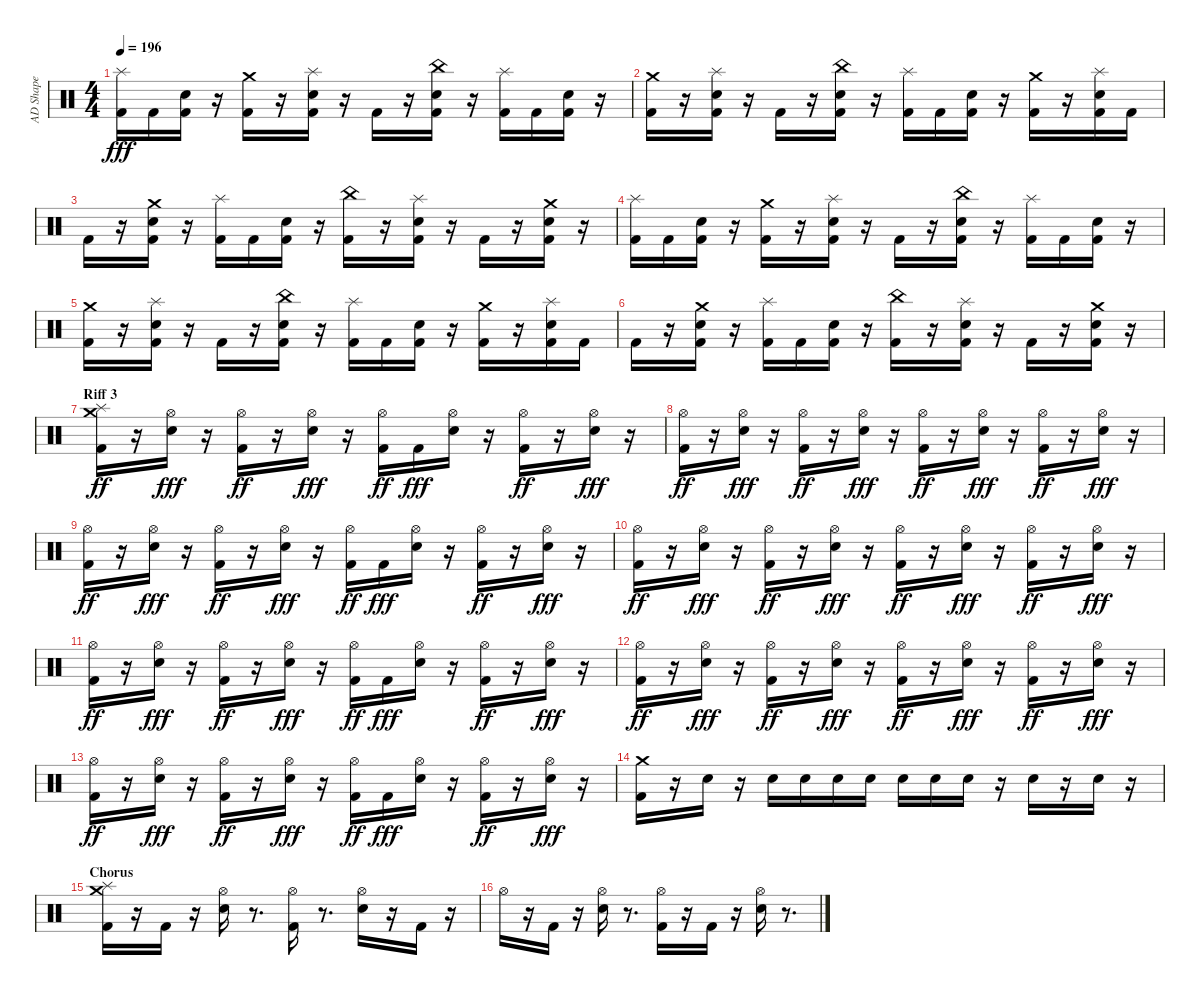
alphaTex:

\track ("AD Shape" "AD Shape") {instrument percussion}
\staff {score}
\articulation defaults
\ts (4 4)
\tempo 196
\clef neutral
\ks c
("Kick (hit) 2" "Splash (hit)").16{dy fff} "Kick (hit) 2".16 ("Kick (hit) 2" "Snare (hit) 2").16 r.16 ("Kick (hit) 2" "Crash medium (hit)").16 r.16 ("Kick (hit) 2" "Snare (hit) 2" "Splash (hit)").16 r.16 "Kick (hit) 2".16 r.16 ("Kick (hit) 2" "Snare (hit) 2" "China (hit)").16 r.16 ("Kick (hit) 2" "Splash (hit)").16 "Kick (hit) 2".16 ("Kick (hit) 2" "Snare (hit) 2").16 r.16 |
("Kick (hit) 2" "Crash medium (hit)").16 r.16 ("Kick (hit) 2" "Snare (hit) 2" "Splash (hit)").16 r.16 "Kick (hit) 2".16 r.16 ("Kick (hit) 2" "Snare (hit) 2" "China (hit)").16 r.16 ("Kick (hit) 2" "Splash (hit)").16 "Kick (hit) 2".16 ("Kick (hit) 2" "Snare (hit) 2").16 r.16 ("Kick (hit) 2" "Crash medium (hit)").16 r.16 ("Kick (hit) 2" "Snare (hit) 2" "Splash (hit)").16 "Kick (hit) 2".16 |
"Kick (hit) 2".16 r.16 ("Kick (hit) 2" "Snare (hit) 2" "Crash medium (hit)").16 r.16 ("Kick (hit) 2" "Splash (hit)").16 "Kick (hit) 2".16 ("Kick (hit) 2" "Snare (hit) 2").16 r.16 ("Kick (hit) 2" "China (hit)").16 r.16 ("Kick (hit) 2" "Snare (hit) 2" "Splash (hit)").16 r.16 "Kick (hit) 2".16 r.16 ("Kick (hit) 2" "Snare (hit) 2" "Crash medium (hit)").16 r.16 |
("Kick (hit) 2" "Splash (hit)").16 "Kick (hit) 2".16 ("Kick (hit) 2" "Snare (hit) 2").16 r.16 ("Kick (hit) 2" "Crash medium (hit)").16 r.16 ("Kick (hit) 2" "Snare (hit) 2" "Splash (hit)").16 r.16 "Kick (hit) 2".16 r.16 ("Kick (hit) 2" "Snare (hit) 2" "China (hit)").16 r.16 ("Kick (hit) 2" "Splash (hit)").16 "Kick (hit) 2".16 ("Kick (hit) 2" "Snare (hit) 2").16 r.16 |
("Kick (hit) 2" "Crash medium (hit)").16 r.16 ("Kick (hit) 2" "Snare (hit) 2" "Splash (hit)").16 r.16 "Kick (hit) 2".16 r.16 ("Kick (hit) 2" "Snare (hit) 2" "China (hit)").16 r.16 ("Kick (hit) 2" "Splash (hit)").16 "Kick (hit) 2".16 ("Kick (hit) 2" "Snare (hit) 2").16 r.16 ("Kick (hit) 2" "Crash medium (hit)").16 r.16 ("Kick (hit) 2" "Snare (hit) 2" "Splash (hit)").16 "Kick (hit) 2".16 |
"Kick (hit) 2".16 r.16 ("Kick (hit) 2" "Snare (hit) 2" "Crash medium (hit)").16 r.16 ("Kick (hit) 2" "Splash (hit)").16 "Kick (hit) 2".16 ("Kick (hit) 2" "Snare (hit) 2").16 r.16 ("Kick (hit) 2" "China (hit)").16 r.16 ("Kick (hit) 2" "Snare (hit) 2" "Splash (hit)").16 r.16 "Kick (hit) 2".16 r.16 ("Kick (hit) 2" "Snare (hit) 2" "Crash medium (hit)").16 r.16 |
\section ("" "Riff 3")
("Kick (hit) 2" "Splash (hit)" "Crash medium (hit)").16{dy ff} r.16 ("Snare (hit) 2" "Hi-Hat (open)").16{dy fff} r.16 ("Kick (hit) 2" "Hi-Hat (open)").16{dy ff} r.16 ("Snare (hit) 2" "Hi-Hat (open)").16{dy fff} r.16 ("Kick (hit) 2" "Hi-Hat (open)").16{dy ff} "Kick (hit) 2".16{dy fff} ("Snare (hit) 2" "Hi-Hat (open)").16 r.16 ("Kick (hit) 2" "Hi-Hat (open)").16{dy ff} r.16 ("Snare (hit) 2" "Hi-Hat (open)").16{dy fff} r.16 |
("Kick (hit) 2" "Hi-Hat (open)").16{dy ff} r.16 ("Snare (hit) 2" "Hi-Hat (open)").16{dy fff} r.16 ("Kick (hit) 2" "Hi-Hat (open)").16{dy ff} r.16 ("Snare (hit) 2" "Hi-Hat (open)").16{dy fff} r.16 ("Kick (hit) 2" "Hi-Hat (open)").16{dy ff} r.16 ("Snare (hit) 2" "Hi-Hat (open)").16{dy fff} r.16 ("Kick (hit) 2" "Hi-Hat (open)").16{dy ff} r.16 ("Snare (hit) 2" "Hi-Hat (open)").16{dy fff} r.16 |
("Kick (hit) 2" "Hi-Hat (open)").16{dy ff} r.16 ("Snare (hit) 2" "Hi-Hat (open)").16{dy fff} r.16 ("Kick (hit) 2" "Hi-Hat (open)").16{dy ff} r.16 ("Snare (hit) 2" "Hi-Hat (open)").16{dy fff} r.16 ("Kick (hit) 2" "Hi-Hat (open)").16{dy ff} "Kick (hit) 2".16{dy fff} ("Snare (hit) 2" "Hi-Hat (open)").16 r.16 ("Kick (hit) 2" "Hi-Hat (open)").16{dy ff} r.16 ("Snare (hit) 2" "Hi-Hat (open)").16{dy fff} r.16 |
("Kick (hit) 2" "Hi-Hat (open)").16{dy ff} r.16 ("Snare (hit) 2" "Hi-Hat (open)").16{dy fff} r.16 ("Kick (hit) 2" "Hi-Hat (open)").16{dy ff} r.16 ("Snare (hit) 2" "Hi-Hat (open)").16{dy fff} r.16 ("Kick (hit) 2" "Hi-Hat (open)").16{dy ff} r.16 ("Snare (hit) 2" "Hi-Hat (open)").16{dy fff} r.16 ("Kick (hit) 2" "Hi-Hat (open)").16{dy ff} r.16 ("Snare (hit) 2" "Hi-Hat (open)").16{dy fff} r.16 |
("Kick (hit) 2" "Hi-Hat (open)").16{dy ff} r.16 ("Snare (hit) 2" "Hi-Hat (open)").16{dy fff} r.16 ("Kick (hit) 2" "Hi-Hat (open)").16{dy ff} r.16 ("Snare (hit) 2" "Hi-Hat (open)").16{dy fff} r.16 ("Kick (hit) 2" "Hi-Hat (open)").16{dy ff} "Kick (hit) 2".16{dy fff} ("Snare (hit) 2" "Hi-Hat (open)").16 r.16 ("Kick (hit) 2" "Hi-Hat (open)").16{dy ff} r.16 ("Snare (hit) 2" "Hi-Hat (open)").16{dy fff} r.16 |
("Kick (hit) 2" "Hi-Hat (open)").16{dy ff} r.16 ("Snare (hit) 2" "Hi-Hat (open)").16{dy fff} r.16 ("Kick (hit) 2" "Hi-Hat (open)").16{dy ff} r.16 ("Snare (hit) 2" "Hi-Hat (open)").16{dy fff} r.16 ("Kick (hit) 2" "Hi-Hat (open)").16{dy ff} r.16 ("Snare (hit) 2" "Hi-Hat (open)").16{dy fff} r.16 ("Kick (hit) 2" "Hi-Hat (open)").16{dy ff} r.16 ("Snare (hit) 2" "Hi-Hat (open)").16{dy fff} r.16 |
("Kick (hit) 2" "Hi-Hat (open)").16{dy ff} r.16 ("Snare (hit) 2" "Hi-Hat (open)").16{dy fff} r.16 ("Kick (hit) 2" "Hi-Hat (open)").16{dy ff} r.16 ("Snare (hit) 2" "Hi-Hat (open)").16{dy fff} r.16 ("Kick (hit) 2" "Hi-Hat (open)").16{dy ff} "Kick (hit) 2".16{dy fff} ("Snare (hit) 2" "Hi-Hat (open)").16 r.16 ("Kick (hit) 2" "Hi-Hat (open)").16{dy ff} r.16 ("Snare (hit) 2" "Hi-Hat (open)").16{dy fff} r.16 |
("Kick (hit) 2" "Crash medium (hit)").16 r.16 "Snare (hit) 2".16 r.16 "Snare (hit) 2".16 "Snare (hit) 2".16 "Snare (hit) 2".16 "Snare (hit) 2".16 "Snare (hit) 2".16 "Snare (hit) 2".16 "Snare (hit) 2".16 r.16 "Snare (hit) 2".16 r.16 "Snare (hit) 2".16 r.16 |
\section ("" "Chorus")
("Kick (hit) 2" "Splash (hit)" "Crash medium (hit)").16 r.16 "Kick (hit) 2".16 r.16 ("Snare (hit) 2" "Hi-Hat (open)").16 r.8{d} ("Kick (hit) 2" "Hi-Hat (open)").16 r.8{d} ("Snare (hit) 2" "Hi-Hat (open)").16 r.16 "Kick (hit) 2".16 r.16 |
"Hi-Hat (open)".16 r.16 "Kick (hit) 2".16 r.16 ("Snare (hit) 2" "Hi-Hat (open)").16 r.8{d} ("Kick (hit) 2" "Hi-Hat (open)").16 r.16 "Kick (hit) 2".16 r.16 ("Snare (hit) 2" "Hi-Hat (open)").16 r.8{d}
